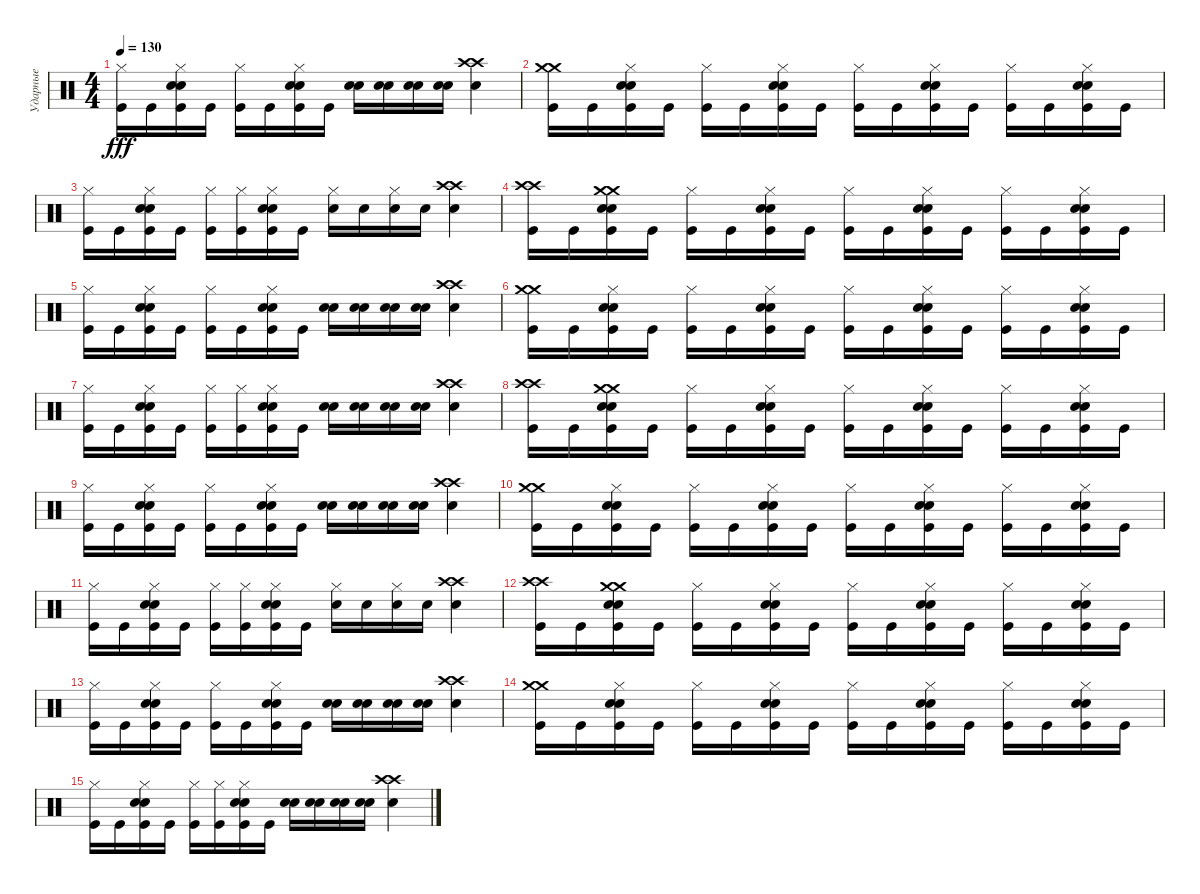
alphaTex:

\track ("Ударные" "Ударные") {instrument percussion}
\staff {score}
\articulation defaults
\ts (4 4)
\tempo 130
\clef neutral
\ks c
("Hi-Hat (closed)" "Kick (hit)").16{dy fff} "Kick (hit)".16 ("Hi-Hat (closed)" "Snare (hit) 2" "Snare (hit) 2" "Kick (hit)").16 "Kick (hit)".16 ("Hi-Hat (closed)" "Kick (hit)").16 "Kick (hit)".16 ("Hi-Hat (closed)" "Snare (hit) 2" "Snare (hit) 2" "Kick (hit)").16 "Kick (hit)".16 ("Snare (hit) 2" "Electric Snare (hit)").16 ("Snare (hit) 2" "Electric Snare (hit)").16 ("Snare (hit) 2" "Electric Snare (hit)").16 ("Snare (hit) 2" "Electric Snare (hit)").16 ("Crash high (hit)" "Crash high (hit)" "Electric Snare (hit)").4 |
("Crash medium (hit)" "Crash medium (hit)" "Kick (hit)").16 "Kick (hit)".16 ("Snare (hit) 2" "Snare (hit) 2" "Hi-Hat (closed)" "Kick (hit)").16 "Kick (hit)".16 ("Hi-Hat (closed)" "Kick (hit)").16 "Kick (hit)".16 ("Hi-Hat (closed)" "Snare (hit) 2" "Snare (hit) 2" "Kick (hit)").16 "Kick (hit)".16 ("Hi-Hat (closed)" "Kick (hit)").16 "Kick (hit)".16 ("Hi-Hat (closed)" "Snare (hit) 2" "Snare (hit) 2" "Kick (hit)").16 "Kick (hit)".16 ("Hi-Hat (closed)" "Kick (hit)").16 "Kick (hit)".16 ("Hi-Hat (closed)" "Snare (hit) 2" "Snare (hit) 2" "Kick (hit)").16 "Kick (hit)".16 |
("Hi-Hat (closed)" "Kick (hit)").16 "Kick (hit)".16 ("Hi-Hat (closed)" "Snare (hit) 2" "Snare (hit) 2" "Kick (hit)").16 "Kick (hit)".16 ("Hi-Hat (closed)" "Kick (hit)").16 ("Hi-Hat (closed)" "Kick (hit)").16 ("Hi-Hat (closed)" "Snare (hit) 2" "Snare (hit) 2" "Kick (hit)").16 "Kick (hit)".16 ("Hi-Hat (closed)" "Electric Snare (hit)").16 "Electric Snare (hit)".16 ("Hi-Hat (closed)" "Electric Snare (hit)").16 "Electric Snare (hit)".16 ("Crash high (hit)" "Crash high (hit)" "Electric Snare (hit)").4 |
("Crash high (hit)" "Crash high (hit)" "Kick (hit)").16 "Kick (hit)".16 ("Snare (hit) 2" "Snare (hit) 2" "Crash medium (hit)" "Crash medium (hit)" "Kick (hit)").16 "Kick (hit)".16 ("Hi-Hat (closed)" "Kick (hit)").16 "Kick (hit)".16 ("Hi-Hat (closed)" "Snare (hit) 2" "Snare (hit) 2" "Kick (hit)").16 "Kick (hit)".16 ("Hi-Hat (closed)" "Kick (hit)").16 "Kick (hit)".16 ("Hi-Hat (closed)" "Snare (hit) 2" "Snare (hit) 2" "Kick (hit)").16 "Kick (hit)".16 ("Hi-Hat (closed)" "Kick (hit)").16 "Kick (hit)".16 ("Hi-Hat (closed)" "Snare (hit) 2" "Snare (hit) 2" "Kick (hit)").16 "Kick (hit)".16 |
("Hi-Hat (closed)" "Kick (hit)").16 "Kick (hit)".16 ("Hi-Hat (closed)" "Snare (hit) 2" "Snare (hit) 2" "Kick (hit)").16 "Kick (hit)".16 ("Hi-Hat (closed)" "Kick (hit)").16 "Kick (hit)".16 ("Hi-Hat (closed)" "Snare (hit) 2" "Snare (hit) 2" "Kick (hit)").16 "Kick (hit)".16 ("Snare (hit) 2" "Electric Snare (hit)").16 ("Snare (hit) 2" "Electric Snare (hit)").16 ("Snare (hit) 2" "Electric Snare (hit)").16 ("Snare (hit) 2" "Electric Snare (hit)").16 ("Crash high (hit)" "Crash high (hit)" "Electric Snare (hit)").4 |
("Crash medium (hit)" "Crash medium (hit)" "Kick (hit)").16 "Kick (hit)".16 ("Snare (hit) 2" "Snare (hit) 2" "Hi-Hat (closed)" "Kick (hit)").16 "Kick (hit)".16 ("Hi-Hat (closed)" "Kick (hit)").16 "Kick (hit)".16 ("Hi-Hat (closed)" "Snare (hit) 2" "Snare (hit) 2" "Kick (hit)").16 "Kick (hit)".16 ("Hi-Hat (closed)" "Kick (hit)").16 "Kick (hit)".16 ("Hi-Hat (closed)" "Snare (hit) 2" "Snare (hit) 2" "Kick (hit)").16 "Kick (hit)".16 ("Hi-Hat (closed)" "Kick (hit)").16 "Kick (hit)".16 ("Hi-Hat (closed)" "Snare (hit) 2" "Snare (hit) 2" "Kick (hit)").16 "Kick (hit)".16 |
("Hi-Hat (closed)" "Kick (hit)").16 "Kick (hit)".16 ("Hi-Hat (closed)" "Snare (hit) 2" "Snare (hit) 2" "Kick (hit)").16 "Kick (hit)".16 ("Hi-Hat (closed)" "Kick (hit)").16 ("Hi-Hat (closed)" "Kick (hit)").16 ("Hi-Hat (closed)" "Snare (hit) 2" "Snare (hit) 2" "Kick (hit)").16 "Kick (hit)".16 ("Snare (hit) 2" "Electric Snare (hit)").16 ("Snare (hit) 2" "Electric Snare (hit)").16 ("Snare (hit) 2" "Electric Snare (hit)").16 ("Snare (hit) 2" "Electric Snare (hit)").16 ("Crash high (hit)" "Crash high (hit)" "Electric Snare (hit)").4 |
("Crash high (hit)" "Crash high (hit)" "Kick (hit)").16 "Kick (hit)".16 ("Snare (hit) 2" "Snare (hit) 2" "Crash medium (hit)" "Crash medium (hit)" "Kick (hit)").16 "Kick (hit)".16 ("Hi-Hat (closed)" "Kick (hit)").16 "Kick (hit)".16 ("Hi-Hat (closed)" "Snare (hit) 2" "Snare (hit) 2" "Kick (hit)").16 "Kick (hit)".16 ("Hi-Hat (closed)" "Kick (hit)").16 "Kick (hit)".16 ("Hi-Hat (closed)" "Snare (hit) 2" "Snare (hit) 2" "Kick (hit)").16 "Kick (hit)".16 ("Hi-Hat (closed)" "Kick (hit)").16 "Kick (hit)".16 ("Hi-Hat (closed)" "Snare (hit) 2" "Snare (hit) 2" "Kick (hit)").16 "Kick (hit)".16 |
("Hi-Hat (closed)" "Kick (hit)").16 "Kick (hit)".16 ("Hi-Hat (closed)" "Snare (hit) 2" "Snare (hit) 2" "Kick (hit)").16 "Kick (hit)".16 ("Hi-Hat (closed)" "Kick (hit)").16 "Kick (hit)".16 ("Hi-Hat (closed)" "Snare (hit) 2" "Snare (hit) 2" "Kick (hit)").16 "Kick (hit)".16 ("Snare (hit) 2" "Electric Snare (hit)").16 ("Snare (hit) 2" "Electric Snare (hit)").16 ("Snare (hit) 2" "Electric Snare (hit)").16 ("Snare (hit) 2" "Electric Snare (hit)").16 ("Crash high (hit)" "Crash high (hit)" "Electric Snare (hit)").4 |
("Crash medium (hit)" "Crash medium (hit)" "Kick (hit)").16 "Kick (hit)".16 ("Snare (hit) 2" "Snare (hit) 2" "Hi-Hat (closed)" "Kick (hit)").16 "Kick (hit)".16 ("Hi-Hat (closed)" "Kick (hit)").16 "Kick (hit)".16 ("Hi-Hat (closed)" "Snare (hit) 2" "Snare (hit) 2" "Kick (hit)").16 "Kick (hit)".16 ("Hi-Hat (closed)" "Kick (hit)").16 "Kick (hit)".16 ("Hi-Hat (closed)" "Snare (hit) 2" "Snare (hit) 2" "Kick (hit)").16 "Kick (hit)".16 ("Hi-Hat (closed)" "Kick (hit)").16 "Kick (hit)".16 ("Hi-Hat (closed)" "Snare (hit) 2" "Snare (hit) 2" "Kick (hit)").16 "Kick (hit)".16 |
("Hi-Hat (closed)" "Kick (hit)").16 "Kick (hit)".16 ("Hi-Hat (closed)" "Snare (hit) 2" "Snare (hit) 2" "Kick (hit)").16 "Kick (hit)".16 ("Hi-Hat (closed)" "Kick (hit)").16 ("Hi-Hat (closed)" "Kick (hit)").16 ("Hi-Hat (closed)" "Snare (hit) 2" "Snare (hit) 2" "Kick (hit)").16 "Kick (hit)".16 ("Hi-Hat (closed)" "Electric Snare (hit)").16 "Electric Snare (hit)".16 ("Hi-Hat (closed)" "Electric Snare (hit)").16 "Electric Snare (hit)".16 ("Crash high (hit)" "Crash high (hit)" "Electric Snare (hit)").4 |
("Crash high (hit)" "Crash high (hit)" "Kick (hit)").16 "Kick (hit)".16 ("Snare (hit) 2" "Snare (hit) 2" "Crash medium (hit)" "Crash medium (hit)" "Kick (hit)").16 "Kick (hit)".16 ("Hi-Hat (closed)" "Kick (hit)").16 "Kick (hit)".16 ("Hi-Hat (closed)" "Snare (hit) 2" "Snare (hit) 2" "Kick (hit)").16 "Kick (hit)".16 ("Hi-Hat (closed)" "Kick (hit)").16 "Kick (hit)".16 ("Hi-Hat (closed)" "Snare (hit) 2" "Snare (hit) 2" "Kick (hit)").16 "Kick (hit)".16 ("Hi-Hat (closed)" "Kick (hit)").16 "Kick (hit)".16 ("Hi-Hat (closed)" "Snare (hit) 2" "Snare (hit) 2" "Kick (hit)").16 "Kick (hit)".16 |
("Hi-Hat (closed)" "Kick (hit)").16 "Kick (hit)".16 ("Hi-Hat (closed)" "Snare (hit) 2" "Snare (hit) 2" "Kick (hit)").16 "Kick (hit)".16 ("Hi-Hat (closed)" "Kick (hit)").16 "Kick (hit)".16 ("Hi-Hat (closed)" "Snare (hit) 2" "Snare (hit) 2" "Kick (hit)").16 "Kick (hit)".16 ("Snare (hit) 2" "Electric Snare (hit)").16 ("Snare (hit) 2" "Electric Snare (hit)").16 ("Snare (hit) 2" "Electric Snare (hit)").16 ("Snare (hit) 2" "Electric Snare (hit)").16 ("Crash high (hit)" "Crash high (hit)" "Electric Snare (hit)").4 |
("Crash medium (hit)" "Crash medium (hit)" "Kick (hit)").16 "Kick (hit)".16 ("Snare (hit) 2" "Snare (hit) 2" "Hi-Hat (closed)" "Kick (hit)").16 "Kick (hit)".16 ("Hi-Hat (closed)" "Kick (hit)").16 "Kick (hit)".16 ("Hi-Hat (closed)" "Snare (hit) 2" "Snare (hit) 2" "Kick (hit)").16 "Kick (hit)".16 ("Hi-Hat (closed)" "Kick (hit)").16 "Kick (hit)".16 ("Hi-Hat (closed)" "Snare (hit) 2" "Snare (hit) 2" "Kick (hit)").16 "Kick (hit)".16 ("Hi-Hat (closed)" "Kick (hit)").16 "Kick (hit)".16 ("Hi-Hat (closed)" "Snare (hit) 2" "Snare (hit) 2" "Kick (hit)").16 "Kick (hit)".16 |
("Hi-Hat (closed)" "Kick (hit)").16 "Kick (hit)".16 ("Hi-Hat (closed)" "Snare (hit) 2" "Snare (hit) 2" "Kick (hit)").16 "Kick (hit)".16 ("Hi-Hat (closed)" "Kick (hit)").16 ("Hi-Hat (closed)" "Kick (hit)").16 ("Hi-Hat (closed)" "Snare (hit) 2" "Snare (hit) 2" "Kick (hit)").16 "Kick (hit)".16 ("Snare (hit) 2" "Electric Snare (hit)").16 ("Snare (hit) 2" "Electric Snare (hit)").16 ("Snare (hit) 2" "Electric Snare (hit)").16 ("Snare (hit) 2" "Electric Snare (hit)").16 ("Crash high (hit)" "Crash high (hit)" "Electric Snare (hit)").4
